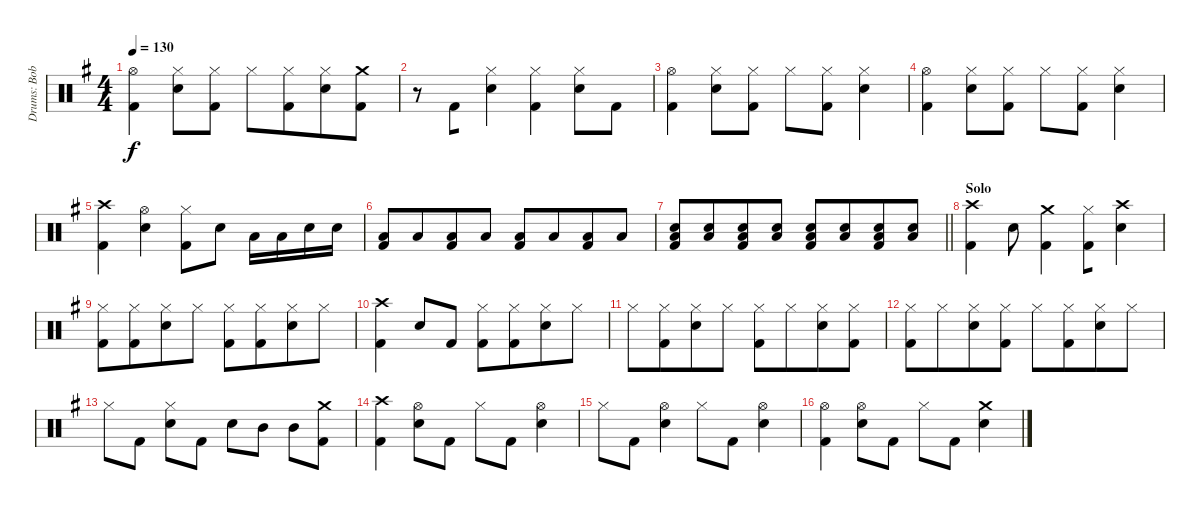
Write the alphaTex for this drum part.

\track ("Drums: Bobby" "Drums: Bob") {instrument percussion}
\staff {score}
\articulation defaults
\ts (4 4)
\tempo 130
\clef neutral
\ks g
("Hi-Hat (open)" "Kick (hit) 2").4{dy f beam merge} ("Hi-Hat (closed)" "Snare (hit) 2").8 ("Hi-Hat (closed)" "Kick (hit) 2").8 "Hi-Hat (closed)".8 ("Hi-Hat (closed)" "Kick (hit) 2").8{beam merge} ("Hi-Hat (closed)" "Snare (hit) 2").8 ("Crash medium (hit)" "Kick (hit) 2").8 |
r.8 "Kick (hit) 2".8{beam merge} ("Hi-Hat (closed)" "Snare (hit) 2").4 ("Hi-Hat (closed)" "Kick (hit) 2").4{beam merge} ("Hi-Hat (closed)" "Snare (hit) 2").8 "Kick (hit) 2".8 |
("Hi-Hat (open)" "Kick (hit) 2").4{beam merge} ("Hi-Hat (closed)" "Snare (hit) 2").8 ("Hi-Hat (closed)" "Kick (hit) 2").8 "Hi-Hat (closed)".8 ("Hi-Hat (closed)" "Kick (hit) 2").8{beam merge} ("Hi-Hat (closed)" "Snare (hit) 2").4 |
("Hi-Hat (open)" "Kick (hit) 2").4{beam merge} ("Hi-Hat (closed)" "Snare (hit) 2").8 ("Hi-Hat (closed)" "Kick (hit) 2").8 "Hi-Hat (closed)".8 ("Hi-Hat (closed)" "Kick (hit) 2").8{beam merge} ("Hi-Hat (closed)" "Snare (hit) 2").4 |
("Crash high (hit)" "Kick (hit) 2").4 ("Hi-Hat (open)" "Snare (hit) 2").4 ("Hi-Hat (closed)" "Kick (hit) 2").8 "Snare (hit) 2".8 "Low Tom (hit)".16 "Low Tom (hit)".16 "Snare (hit) 2".16 "Snare (hit) 2".16 |
("Low Tom (hit)" "Kick (hit) 2").8 "Low Tom (hit)".8{beam merge} ("Low Tom (hit)" "Kick (hit) 2").8 "Low Tom (hit)".8 ("Low Tom (hit)" "Kick (hit) 2").8 "Low Tom (hit)".8{beam merge} ("Low Tom (hit)" "Kick (hit) 2").8 "Low Tom (hit)".8 |
\barLineRight lightlight
("Snare (hit) 2" "Low Tom (hit)" "Kick (hit) 2").8 ("Snare (hit) 2" "Low Tom (hit)").8{beam merge} ("Snare (hit) 2" "Low Tom (hit)" "Kick (hit) 2").8 ("Snare (hit) 2" "Low Tom (hit)").8 ("Snare (hit) 2" "Low Tom (hit)" "Kick (hit) 2").8 ("Snare (hit) 2" "Low Tom (hit)").8{beam merge} ("Snare (hit) 2" "Low Tom (hit)" "Kick (hit) 2").8 ("Snare (hit) 2" "Low Tom (hit)").8 |
\section ("" "Solo")
("Crash high (hit)" "Kick (hit) 2").4 "Snare (hit) 2".8 ("Crash medium (hit)" "Kick (hit) 2").4 ("Hi-Hat (closed)" "Kick (hit) 2").8{beam merge} ("Crash high (hit)" "Snare (hit) 2").4 |
("Hi-Hat (closed)" "Kick (hit) 2").8 ("Hi-Hat (closed)" "Kick (hit) 2").8{beam merge} ("Hi-Hat (closed)" "Snare (hit) 2").8 "Hi-Hat (closed)".8 ("Hi-Hat (closed)" "Kick (hit) 2").8 ("Hi-Hat (closed)" "Kick (hit) 2").8{beam merge} ("Hi-Hat (closed)" "Snare (hit) 2").8 "Hi-Hat (closed)".8 |
("Crash high (hit)" "Kick (hit) 2").4 "Snare (hit) 2".8 "Kick (hit) 2".8 ("Hi-Hat (closed)" "Kick (hit) 2").8 ("Hi-Hat (closed)" "Kick (hit) 2").8{beam merge} ("Hi-Hat (closed)" "Snare (hit) 2").8 "Hi-Hat (closed)".8 |
"Hi-Hat (closed)".8 ("Hi-Hat (closed)" "Kick (hit) 2").8{beam merge} ("Hi-Hat (closed)" "Snare (hit) 2").8 "Hi-Hat (closed)".8 ("Hi-Hat (closed)" "Kick (hit) 2").8 "Hi-Hat (closed)".8{beam merge} ("Hi-Hat (closed)" "Snare (hit) 2").8 ("Hi-Hat (closed)" "Kick (hit) 2").8 |
("Hi-Hat (closed)" "Kick (hit) 2").8 "Hi-Hat (closed)".8{beam merge} ("Hi-Hat (closed)" "Snare (hit) 2").8 ("Hi-Hat (closed)" "Kick (hit) 2").8 "Hi-Hat (closed)".8 ("Hi-Hat (closed)" "Kick (hit) 2").8{beam merge} ("Hi-Hat (closed)" "Snare (hit) 2").8 "Hi-Hat (closed)".8 |
"Hi-Hat (closed)".8 "Kick (hit) 2".8 ("Hi-Hat (closed)" "Snare (hit) 2").8 "Kick (hit) 2".8 "Snare (hit) 2".8 "Mid Tom (hit)".8 "Mid Tom (hit)".8 ("Crash medium (hit)" "Kick (hit) 2").8 |
("Crash high (hit)" "Kick (hit) 2").4 ("Hi-Hat (open)" "Snare (hit) 2").8 "Kick (hit) 2".8 "Hi-Hat (closed)".8 "Kick (hit) 2".8 ("Hi-Hat (open)" "Snare (hit) 2").4 |
"Hi-Hat (closed)".8 "Kick (hit) 2".8 ("Hi-Hat (open)" "Snare (hit) 2").4 "Hi-Hat (closed)".8 "Kick (hit) 2".8 ("Hi-Hat (open)" "Snare (hit) 2").4 |
("Hi-Hat (open)" "Kick (hit) 2").4 ("Hi-Hat (open)" "Snare (hit) 2").8 "Kick (hit) 2".8 "Hi-Hat (closed)".8 "Kick (hit) 2".8 ("Crash medium (hit)" "Snare (hit) 2").4
